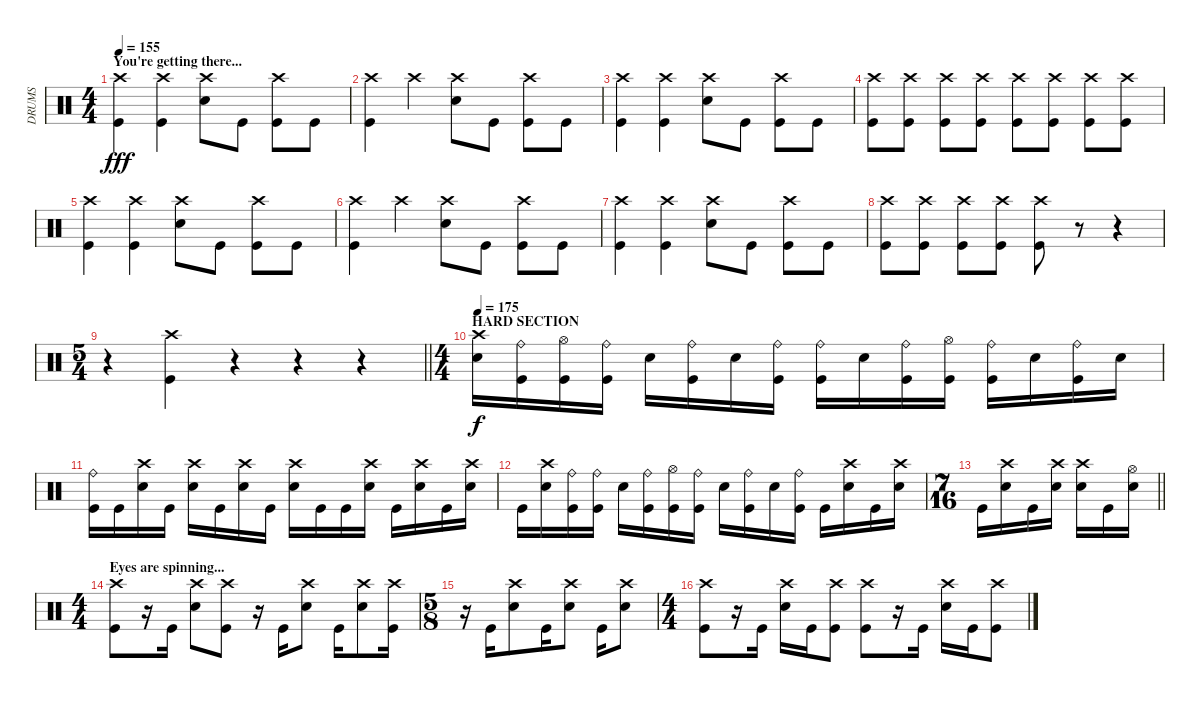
\track ("DRUMS" "DRUMS") {instrument percussion}
\staff {score}
\articulation defaults
\ts (4 4)
\section ("" "You're getting there...")
\tempo 155
\clef neutral
\ks c
("Kick (hit)" "Crash high (hit)").4{dy fff} ("Crash high (hit)" "Kick (hit)").4 ("Snare (hit) 2" "Crash high (hit)").8 "Kick (hit)".8 ("Kick (hit)" "Crash high (hit)").8 "Kick (hit)".8 |
("Kick (hit)" "Crash high (hit)").4 "Crash high (hit)".4 ("Snare (hit) 2" "Crash high (hit)").8 "Kick (hit)".8 ("Kick (hit)" "Crash high (hit)").8 "Kick (hit)".8 |
("Kick (hit)" "Crash high (hit)").4 ("Crash high (hit)" "Kick (hit)").4 ("Snare (hit) 2" "Crash high (hit)").8 "Kick (hit)".8 ("Kick (hit)" "Crash high (hit)").8 "Kick (hit)".8 |
("Kick (hit)" "Crash high (hit)").8 ("Kick (hit)" "Crash high (hit)").8 ("Kick (hit)" "Crash high (hit)").8 ("Kick (hit)" "Crash high (hit)").8 ("Kick (hit)" "Crash high (hit)").8 ("Kick (hit)" "Crash high (hit)").8 ("Kick (hit)" "Crash high (hit)").8 ("Kick (hit)" "Crash high (hit)").8 |
("Kick (hit)" "Crash high (hit)").4 ("Crash high (hit)" "Kick (hit)").4 ("Snare (hit) 2" "Crash high (hit)").8 "Kick (hit)".8 ("Kick (hit)" "Crash high (hit)").8 "Kick (hit)".8 |
("Kick (hit)" "Crash high (hit)").4 "Crash high (hit)".4 ("Snare (hit) 2" "Crash high (hit)").8 "Kick (hit)".8 ("Kick (hit)" "Crash high (hit)").8 "Kick (hit)".8 |
("Kick (hit)" "Crash high (hit)").4 ("Crash high (hit)" "Kick (hit)").4 ("Snare (hit) 2" "Crash high (hit)").8 "Kick (hit)".8 ("Kick (hit)" "Crash high (hit)").8 "Kick (hit)".8 |
("Kick (hit)" "Crash high (hit)").8 ("Kick (hit)" "Crash high (hit)").8 ("Kick (hit)" "Crash high (hit)").8 ("Kick (hit)" "Crash high (hit)").8 ("Kick (hit)" "Crash high (hit)").8 r.8 r.4 |
\ts (5 4)
\barLineRight lightlight
r.4 ("Kick (hit)" "Crash high (hit)").4 r.4 r.4 r.4 |
\ts (4 4)
\section ("" "HARD SECTION")
\tempo 175
("Snare (hit) 2" "Crash high (hit)").16{dy f} ("Kick (hit)" "Ride (bell)").16 ("Kick (hit)" "Hi-Hat (open)").16 ("Kick (hit)" "Ride (bell)").16 "Snare (hit) 2".16 ("Kick (hit)" "Ride (bell)").16 "Snare (hit) 2".16 ("Kick (hit)" "Ride (bell)").16 ("Kick (hit)" "Ride (bell)").16 "Snare (hit) 2".16 ("Kick (hit)" "Ride (bell)").16 ("Kick (hit)" "Hi-Hat (open)").16 ("Kick (hit)" "Ride (bell)").16 "Snare (hit) 2".16 ("Kick (hit)" "Ride (bell)").16 "Snare (hit) 2".16 |
("Kick (hit)" "Ride (bell)").16 "Kick (hit)".16 ("Snare (hit) 2" "Crash high (hit)").16 "Kick (hit)".16 ("Snare (hit) 2" "Crash high (hit)").16 "Kick (hit)".16 ("Snare (hit) 2" "Crash high (hit)").16 "Kick (hit)".16 ("Snare (hit) 2" "Crash high (hit)").16 "Kick (hit)".16 "Kick (hit)".16 ("Snare (hit) 2" "Crash high (hit)").16 "Kick (hit)".16 ("Snare (hit) 2" "Crash high (hit)").16 "Kick (hit)".16 ("Snare (hit) 2" "Crash high (hit)").16 |
"Kick (hit)".16 ("Snare (hit) 2" "Crash high (hit)").16 ("Kick (hit)" "Ride (bell)").16 ("Kick (hit)" "Ride (bell)").16 "Snare (hit) 2".16 ("Kick (hit)" "Ride (bell)").16 ("Kick (hit)" "Hi-Hat (open)").16 ("Kick (hit)" "Ride (bell)").16 "Snare (hit) 2".16 ("Kick (hit)" "Ride (bell)").16 "Snare (hit) 2".16 ("Kick (hit)" "Ride (bell)").16 "Kick (hit)".16 ("Snare (hit) 2" "Crash high (hit)").16 "Kick (hit)".16 ("Snare (hit) 2" "Crash high (hit)").16 |
\ts (7 16)
\barLineRight lightlight "Kick (hit)".16
("Snare (hit) 2" "Crash high (hit)").16 "Kick (hit)".16 ("Snare (hit) 2" "Crash high (hit)").16 ("Snare (hit) 2" "Crash high (hit)").16 "Kick (hit)".16 ("Snare (hit) 2" "Hi-Hat (open)").16 |
\ts (4 4)
\section ("" "Eyes are spinning...")
("Kick (hit)" "Crash high (hit)").8 r.16 "Kick (hit)".16 ("Snare (hit) 2" "Crash high (hit)").8 ("Kick (hit)" "Crash high (hit)").8 r.16 "Kick (hit)".16 ("Snare (hit) 2" "Crash high (hit)").8 "Kick (hit)".16 ("Snare (hit) 2" "Crash high (hit)").8 ("Kick (hit)" "Crash high (hit)").16 |
\ts (5 8)
r.16 "Kick (hit)".16 ("Snare (hit) 2" "Crash high (hit)").8 "Kick (hit)".16 ("Snare (hit) 2" "Crash high (hit)").8 "Kick (hit)".16 ("Snare (hit) 2" "Crash high (hit)").8 |
\ts (4 4)
("Kick (hit)" "Crash high (hit)").8 r.16 "Kick (hit)".16 ("Snare (hit) 2" "Crash high (hit)").16 "Kick (hit)".16 ("Kick (hit)" "Crash high (hit)").8 ("Kick (hit)" "Crash high (hit)").8 r.16 "Kick (hit)".16 ("Snare (hit) 2" "Crash high (hit)").16 "Kick (hit)".16 ("Kick (hit)" "Crash high (hit)").8
